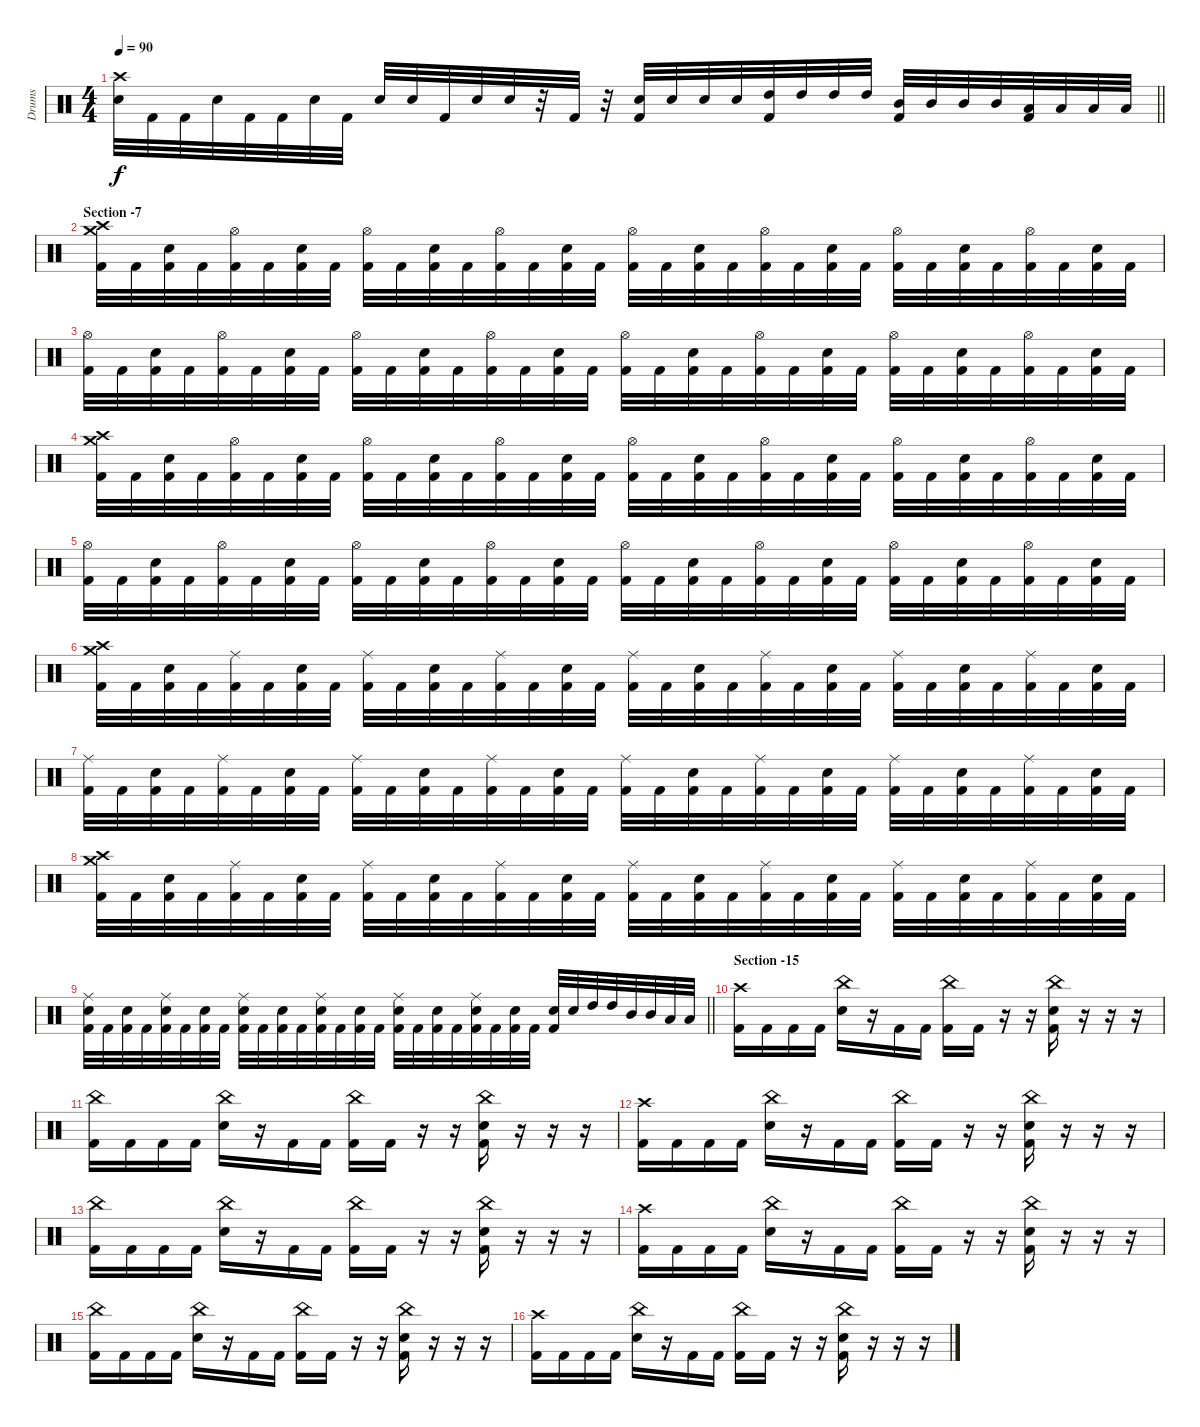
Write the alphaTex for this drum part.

\track ("Drums" "Drums") {instrument percussion}
\staff {score}
\articulation defaults
\ts (4 4)
\tempo 90
\clef neutral
\barLineRight lightlight
\ks c
("Crash high (hit)" "Snare (hit) 2").32{dy f} "Kick (hit) 2".32 "Kick (hit) 2".32 "Snare (hit) 2".32 "Kick (hit) 2".32 "Kick (hit) 2".32 "Snare (hit) 2".32 "Kick (hit) 2".32 "Snare (hit) 2".32 "Snare (hit) 2".32 "Kick (hit) 2".32 "Snare (hit) 2".32 "Snare (hit) 2".32 r.32 "Kick (hit) 2".32 r.32 ("Snare (hit) 2" "Kick (hit) 2").32 "Snare (hit) 2".32 "Snare (hit) 2".32 "Snare (hit) 2".32 ("High Tom (hit)" "Kick (hit) 2").32 "High Tom (hit)".32 "High Tom (hit)".32 "High Tom (hit)".32 ("Mid Tom (hit)" "Kick (hit) 2").32 "Mid Tom (hit)".32 "Mid Tom (hit)".32 "Mid Tom (hit)".32 ("Low Tom (hit)" "Kick (hit) 2").32 "Low Tom (hit)".32 "Low Tom (hit)".32 "Low Tom (hit)".32 |
\section ("" "Section -7")
("Crash high (hit)" "Crash medium (hit)" "Kick (hit) 2").32 "Kick (hit) 2".32 ("Snare (hit) 2" "Kick (hit) 2").32 "Kick (hit) 2".32 ("Hi-Hat (open)" "Kick (hit) 2").32 "Kick (hit) 2".32 ("Snare (hit) 2" "Kick (hit) 2").32 "Kick (hit) 2".32 ("Hi-Hat (open)" "Kick (hit) 2").32 "Kick (hit) 2".32 ("Snare (hit) 2" "Kick (hit) 2").32 "Kick (hit) 2".32 ("Hi-Hat (open)" "Kick (hit) 2").32 "Kick (hit) 2".32 ("Snare (hit) 2" "Kick (hit) 2").32 "Kick (hit) 2".32 ("Hi-Hat (open)" "Kick (hit) 2").32 "Kick (hit) 2".32 ("Snare (hit) 2" "Kick (hit) 2").32 "Kick (hit) 2".32 ("Hi-Hat (open)" "Kick (hit) 2").32 "Kick (hit) 2".32 ("Snare (hit) 2" "Kick (hit) 2").32 "Kick (hit) 2".32 ("Hi-Hat (open)" "Kick (hit) 2").32 "Kick (hit) 2".32 ("Snare (hit) 2" "Kick (hit) 2").32 "Kick (hit) 2".32 ("Hi-Hat (open)" "Kick (hit) 2").32 "Kick (hit) 2".32 ("Snare (hit) 2" "Kick (hit) 2").32 "Kick (hit) 2".32 |
("Hi-Hat (open)" "Kick (hit) 2").32 "Kick (hit) 2".32 ("Snare (hit) 2" "Kick (hit) 2").32 "Kick (hit) 2".32 ("Hi-Hat (open)" "Kick (hit) 2").32 "Kick (hit) 2".32 ("Snare (hit) 2" "Kick (hit) 2").32 "Kick (hit) 2".32 ("Hi-Hat (open)" "Kick (hit) 2").32 "Kick (hit) 2".32 ("Snare (hit) 2" "Kick (hit) 2").32 "Kick (hit) 2".32 ("Hi-Hat (open)" "Kick (hit) 2").32 "Kick (hit) 2".32 ("Snare (hit) 2" "Kick (hit) 2").32 "Kick (hit) 2".32 ("Hi-Hat (open)" "Kick (hit) 2").32 "Kick (hit) 2".32 ("Snare (hit) 2" "Kick (hit) 2").32 "Kick (hit) 2".32 ("Hi-Hat (open)" "Kick (hit) 2").32 "Kick (hit) 2".32 ("Snare (hit) 2" "Kick (hit) 2").32 "Kick (hit) 2".32 ("Hi-Hat (open)" "Kick (hit) 2").32 "Kick (hit) 2".32 ("Snare (hit) 2" "Kick (hit) 2").32 "Kick (hit) 2".32 ("Hi-Hat (open)" "Kick (hit) 2").32 "Kick (hit) 2".32 ("Snare (hit) 2" "Kick (hit) 2").32 "Kick (hit) 2".32 |
("Crash high (hit)" "Crash medium (hit)" "Kick (hit) 2").32 "Kick (hit) 2".32 ("Snare (hit) 2" "Kick (hit) 2").32 "Kick (hit) 2".32 ("Hi-Hat (open)" "Kick (hit) 2").32 "Kick (hit) 2".32 ("Snare (hit) 2" "Kick (hit) 2").32 "Kick (hit) 2".32 ("Hi-Hat (open)" "Kick (hit) 2").32 "Kick (hit) 2".32 ("Snare (hit) 2" "Kick (hit) 2").32 "Kick (hit) 2".32 ("Hi-Hat (open)" "Kick (hit) 2").32 "Kick (hit) 2".32 ("Snare (hit) 2" "Kick (hit) 2").32 "Kick (hit) 2".32 ("Hi-Hat (open)" "Kick (hit) 2").32 "Kick (hit) 2".32 ("Snare (hit) 2" "Kick (hit) 2").32 "Kick (hit) 2".32 ("Hi-Hat (open)" "Kick (hit) 2").32 "Kick (hit) 2".32 ("Snare (hit) 2" "Kick (hit) 2").32 "Kick (hit) 2".32 ("Hi-Hat (open)" "Kick (hit) 2").32 "Kick (hit) 2".32 ("Snare (hit) 2" "Kick (hit) 2").32 "Kick (hit) 2".32 ("Hi-Hat (open)" "Kick (hit) 2").32 "Kick (hit) 2".32 ("Snare (hit) 2" "Kick (hit) 2").32 "Kick (hit) 2".32 |
("Hi-Hat (open)" "Kick (hit) 2").32 "Kick (hit) 2".32 ("Snare (hit) 2" "Kick (hit) 2").32 "Kick (hit) 2".32 ("Hi-Hat (open)" "Kick (hit) 2").32 "Kick (hit) 2".32 ("Snare (hit) 2" "Kick (hit) 2").32 "Kick (hit) 2".32 ("Hi-Hat (open)" "Kick (hit) 2").32 "Kick (hit) 2".32 ("Snare (hit) 2" "Kick (hit) 2").32 "Kick (hit) 2".32 ("Hi-Hat (open)" "Kick (hit) 2").32 "Kick (hit) 2".32 ("Snare (hit) 2" "Kick (hit) 2").32 "Kick (hit) 2".32 ("Hi-Hat (open)" "Kick (hit) 2").32 "Kick (hit) 2".32 ("Snare (hit) 2" "Kick (hit) 2").32 "Kick (hit) 2".32 ("Hi-Hat (open)" "Kick (hit) 2").32 "Kick (hit) 2".32 ("Snare (hit) 2" "Kick (hit) 2").32 "Kick (hit) 2".32 ("Hi-Hat (open)" "Kick (hit) 2").32 "Kick (hit) 2".32 ("Snare (hit) 2" "Kick (hit) 2").32 "Kick (hit) 2".32 ("Hi-Hat (open)" "Kick (hit) 2").32 "Kick (hit) 2".32 ("Snare (hit) 2" "Kick (hit) 2").32 "Kick (hit) 2".32 |
("Crash high (hit)" "Crash medium (hit)" "Kick (hit) 2").32 "Kick (hit) 2".32 ("Snare (hit) 2" "Kick (hit) 2").32 "Kick (hit) 2".32 ("Ride (middle)" "Kick (hit) 2").32 "Kick (hit) 2".32 ("Snare (hit) 2" "Kick (hit) 2").32 "Kick (hit) 2".32 ("Ride (middle)" "Kick (hit) 2").32 "Kick (hit) 2".32 ("Snare (hit) 2" "Kick (hit) 2").32 "Kick (hit) 2".32 ("Ride (middle)" "Kick (hit) 2").32 "Kick (hit) 2".32 ("Snare (hit) 2" "Kick (hit) 2").32 "Kick (hit) 2".32 ("Ride (middle)" "Kick (hit) 2").32 "Kick (hit) 2".32 ("Snare (hit) 2" "Kick (hit) 2").32 "Kick (hit) 2".32 ("Ride (middle)" "Kick (hit) 2").32 "Kick (hit) 2".32 ("Snare (hit) 2" "Kick (hit) 2").32 "Kick (hit) 2".32 ("Ride (middle)" "Kick (hit) 2").32 "Kick (hit) 2".32 ("Snare (hit) 2" "Kick (hit) 2").32 "Kick (hit) 2".32 ("Ride (middle)" "Kick (hit) 2").32 "Kick (hit) 2".32 ("Snare (hit) 2" "Kick (hit) 2").32 "Kick (hit) 2".32 |
("Ride (middle)" "Kick (hit) 2").32 "Kick (hit) 2".32 ("Snare (hit) 2" "Kick (hit) 2").32 "Kick (hit) 2".32 ("Ride (middle)" "Kick (hit) 2").32 "Kick (hit) 2".32 ("Snare (hit) 2" "Kick (hit) 2").32 "Kick (hit) 2".32 ("Ride (middle)" "Kick (hit) 2").32 "Kick (hit) 2".32 ("Snare (hit) 2" "Kick (hit) 2").32 "Kick (hit) 2".32 ("Ride (middle)" "Kick (hit) 2").32 "Kick (hit) 2".32 ("Snare (hit) 2" "Kick (hit) 2").32 "Kick (hit) 2".32 ("Ride (middle)" "Kick (hit) 2").32 "Kick (hit) 2".32 ("Snare (hit) 2" "Kick (hit) 2").32 "Kick (hit) 2".32 ("Ride (middle)" "Kick (hit) 2").32 "Kick (hit) 2".32 ("Snare (hit) 2" "Kick (hit) 2").32 "Kick (hit) 2".32 ("Ride (middle)" "Kick (hit) 2").32 "Kick (hit) 2".32 ("Snare (hit) 2" "Kick (hit) 2").32 "Kick (hit) 2".32 ("Ride (middle)" "Kick (hit) 2").32 "Kick (hit) 2".32 ("Snare (hit) 2" "Kick (hit) 2").32 "Kick (hit) 2".32 |
("Crash high (hit)" "Crash medium (hit)" "Kick (hit) 2").32 "Kick (hit) 2".32 ("Snare (hit) 2" "Kick (hit) 2").32 "Kick (hit) 2".32 ("Ride (middle)" "Kick (hit) 2").32 "Kick (hit) 2".32 ("Snare (hit) 2" "Kick (hit) 2").32 "Kick (hit) 2".32 ("Ride (middle)" "Kick (hit) 2").32 "Kick (hit) 2".32 ("Snare (hit) 2" "Kick (hit) 2").32 "Kick (hit) 2".32 ("Ride (middle)" "Kick (hit) 2").32 "Kick (hit) 2".32 ("Snare (hit) 2" "Kick (hit) 2").32 "Kick (hit) 2".32 ("Ride (middle)" "Kick (hit) 2").32 "Kick (hit) 2".32 ("Snare (hit) 2" "Kick (hit) 2").32 "Kick (hit) 2".32 ("Ride (middle)" "Kick (hit) 2").32 "Kick (hit) 2".32 ("Snare (hit) 2" "Kick (hit) 2").32 "Kick (hit) 2".32 ("Ride (middle)" "Kick (hit) 2").32 "Kick (hit) 2".32 ("Snare (hit) 2" "Kick (hit) 2").32 "Kick (hit) 2".32 ("Ride (middle)" "Kick (hit) 2").32 "Kick (hit) 2".32 ("Snare (hit) 2" "Kick (hit) 2").32 "Kick (hit) 2".32 |
\barLineRight lightlight
("Ride (middle)" "Snare (hit) 2" "Kick (hit) 2").32 "Kick (hit) 2".32 ("Snare (hit) 2" "Kick (hit) 2").32 "Kick (hit) 2".32 ("Ride (middle)" "Snare (hit) 2" "Kick (hit) 2").32 "Kick (hit) 2".32 ("Snare (hit) 2" "Kick (hit) 2").32 "Kick (hit) 2".32 ("Ride (middle)" "Snare (hit) 2" "Kick (hit) 2").32 "Kick (hit) 2".32 ("Snare (hit) 2" "Kick (hit) 2").32 "Kick (hit) 2".32 ("Ride (middle)" "Snare (hit) 2" "Kick (hit) 2").32 "Kick (hit) 2".32 ("Snare (hit) 2" "Kick (hit) 2").32 "Kick (hit) 2".32 ("Ride (middle)" "Snare (hit) 2" "Kick (hit) 2").32 "Kick (hit) 2".32 ("Snare (hit) 2" "Kick (hit) 2").32 "Kick (hit) 2".32 ("Ride (middle)" "Snare (hit) 2" "Kick (hit) 2").32 "Kick (hit) 2".32 ("Snare (hit) 2" "Kick (hit) 2").32 "Kick (hit) 2".32 ("Snare (hit) 2" "Kick (hit) 2").32 "Snare (hit) 2".32 "High Tom (hit)".32 "High Tom (hit)".32 "Mid Tom (hit)".32 "Mid Tom (hit)".32 "Low Tom (hit)".32 "Low Tom (hit)".32 |
\section ("" "Section -15")
("Crash high (hit)" "Kick (hit) 2").16 "Kick (hit) 2".16 "Kick (hit) 2".16 "Kick (hit) 2".16 ("China (hit)" "Snare (hit) 2").16 r.16 "Kick (hit) 2".16 "Kick (hit) 2".16 ("China (hit)" "Kick (hit) 2").16 "Kick (hit) 2".16 r.16 r.16 ("China (hit)" "Snare (hit) 2" "Kick (hit) 2").16 r.16 r.16 r.16 |
("China (hit)" "Kick (hit) 2").16 "Kick (hit) 2".16 "Kick (hit) 2".16 "Kick (hit) 2".16 ("China (hit)" "Snare (hit) 2").16 r.16 "Kick (hit) 2".16 "Kick (hit) 2".16 ("China (hit)" "Kick (hit) 2").16 "Kick (hit) 2".16 r.16 r.16 ("China (hit)" "Snare (hit) 2" "Kick (hit) 2").16 r.16 r.16 r.16 |
("Crash high (hit)" "Kick (hit) 2").16 "Kick (hit) 2".16 "Kick (hit) 2".16 "Kick (hit) 2".16 ("China (hit)" "Snare (hit) 2").16 r.16 "Kick (hit) 2".16 "Kick (hit) 2".16 ("China (hit)" "Kick (hit) 2").16 "Kick (hit) 2".16 r.16 r.16 ("China (hit)" "Snare (hit) 2" "Kick (hit) 2").16 r.16 r.16 r.16 |
("China (hit)" "Kick (hit) 2").16 "Kick (hit) 2".16 "Kick (hit) 2".16 "Kick (hit) 2".16 ("China (hit)" "Snare (hit) 2").16 r.16 "Kick (hit) 2".16 "Kick (hit) 2".16 ("China (hit)" "Kick (hit) 2").16 "Kick (hit) 2".16 r.16 r.16 ("China (hit)" "Snare (hit) 2" "Kick (hit) 2").16 r.16 r.16 r.16 |
("Crash high (hit)" "Kick (hit) 2").16 "Kick (hit) 2".16 "Kick (hit) 2".16 "Kick (hit) 2".16 ("China (hit)" "Snare (hit) 2").16 r.16 "Kick (hit) 2".16 "Kick (hit) 2".16 ("China (hit)" "Kick (hit) 2").16 "Kick (hit) 2".16 r.16 r.16 ("China (hit)" "Snare (hit) 2" "Kick (hit) 2").16 r.16 r.16 r.16 |
("China (hit)" "Kick (hit) 2").16 "Kick (hit) 2".16 "Kick (hit) 2".16 "Kick (hit) 2".16 ("China (hit)" "Snare (hit) 2").16 r.16 "Kick (hit) 2".16 "Kick (hit) 2".16 ("China (hit)" "Kick (hit) 2").16 "Kick (hit) 2".16 r.16 r.16 ("China (hit)" "Snare (hit) 2" "Kick (hit) 2").16 r.16 r.16 r.16 |
("Crash high (hit)" "Kick (hit) 2").16 "Kick (hit) 2".16 "Kick (hit) 2".16 "Kick (hit) 2".16 ("China (hit)" "Snare (hit) 2").16 r.16 "Kick (hit) 2".16 "Kick (hit) 2".16 ("China (hit)" "Kick (hit) 2").16 "Kick (hit) 2".16 r.16 r.16 ("China (hit)" "Snare (hit) 2" "Kick (hit) 2").16 r.16 r.16 r.16
